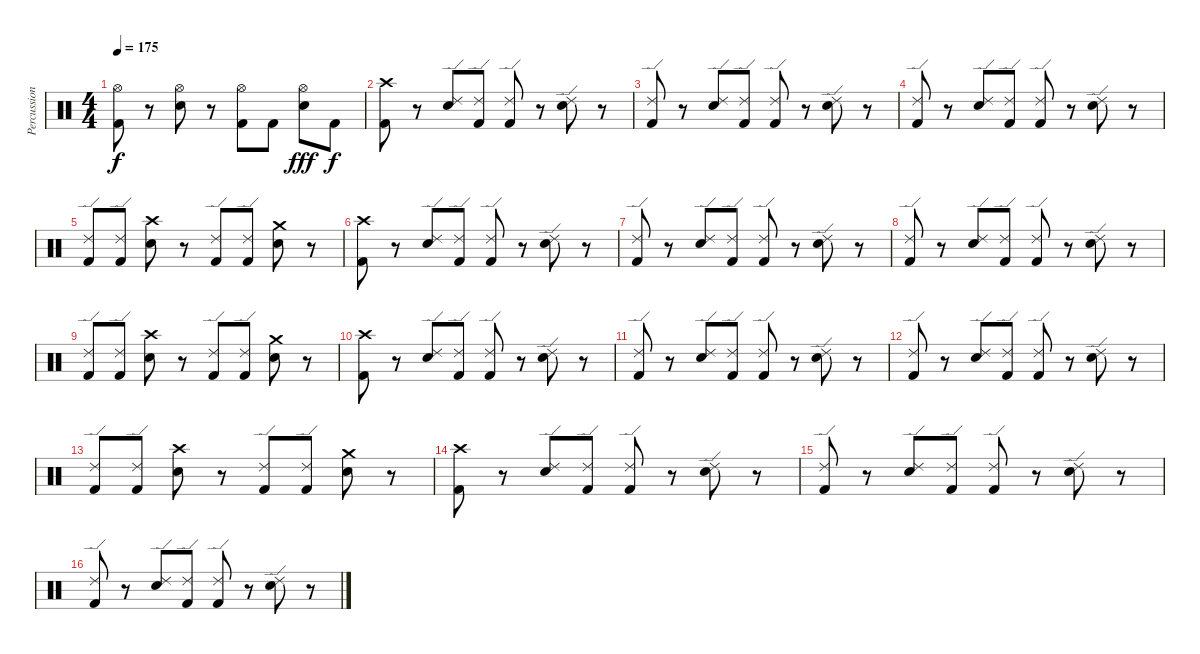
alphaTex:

\track ("Percussion" "Percussion") {instrument percussion}
\staff {score}
\articulation defaults
\ts (4 4)
\tempo 175
\clef neutral
\ks c
("Hi-Hat (open)" "Kick (hit) 2").8{dy f} r.8 ("Hi-Hat (open)" "Electric Snare (hit)").8 r.8 ("Hi-Hat (open)" "Kick (hit) 2").8 "Kick (hit) 2".8 ("Hi-Hat (open)" "Electric Snare (hit)").8{dy fff} "Kick (hit) 2".8{dy f} |
("Crash high (hit)" "Kick (hit) 2").8 r.8 ("Ride (edge) 2" "Electric Snare (hit)").8 ("Ride (edge) 2" "Kick (hit) 2").8 ("Ride (edge) 2" "Kick (hit) 2").8 r.8 ("Ride (edge) 2" "Electric Snare (hit)").8 r.8 |
("Ride (edge) 2" "Kick (hit) 2").8 r.8 ("Ride (edge) 2" "Electric Snare (hit)").8 ("Ride (edge) 2" "Kick (hit) 2").8 ("Ride (edge) 2" "Kick (hit) 2").8 r.8 ("Ride (edge) 2" "Electric Snare (hit)").8 r.8 |
("Ride (edge) 2" "Kick (hit) 2").8 r.8 ("Ride (edge) 2" "Electric Snare (hit)").8 ("Ride (edge) 2" "Kick (hit) 2").8 ("Ride (edge) 2" "Kick (hit) 2").8 r.8 ("Ride (edge) 2" "Electric Snare (hit)").8 r.8 |
("Ride (edge) 2" "Kick (hit) 2").8 ("Ride (edge) 2" "Kick (hit) 2").8 ("Crash high (hit)" "Electric Snare (hit)").8 r.8 ("Ride (edge) 2" "Kick (hit) 2").8 ("Ride (edge) 2" "Kick (hit) 2").8 ("Crash medium (hit)" "Electric Snare (hit)").8 r.8 |
("Crash high (hit)" "Kick (hit) 2").8 r.8 ("Ride (edge) 2" "Electric Snare (hit)").8 ("Ride (edge) 2" "Kick (hit) 2").8 ("Ride (edge) 2" "Kick (hit) 2").8 r.8 ("Ride (edge) 2" "Electric Snare (hit)").8 r.8 |
("Ride (edge) 2" "Kick (hit) 2").8 r.8 ("Ride (edge) 2" "Electric Snare (hit)").8 ("Ride (edge) 2" "Kick (hit) 2").8 ("Ride (edge) 2" "Kick (hit) 2").8 r.8 ("Ride (edge) 2" "Electric Snare (hit)").8 r.8 |
("Ride (edge) 2" "Kick (hit) 2").8 r.8 ("Ride (edge) 2" "Electric Snare (hit)").8 ("Ride (edge) 2" "Kick (hit) 2").8 ("Ride (edge) 2" "Kick (hit) 2").8 r.8 ("Ride (edge) 2" "Electric Snare (hit)").8 r.8 |
("Ride (edge) 2" "Kick (hit) 2").8 ("Ride (edge) 2" "Kick (hit) 2").8 ("Crash high (hit)" "Electric Snare (hit)").8 r.8 ("Ride (edge) 2" "Kick (hit) 2").8 ("Ride (edge) 2" "Kick (hit) 2").8 ("Crash medium (hit)" "Electric Snare (hit)").8 r.8 |
("Crash high (hit)" "Kick (hit) 2").8 r.8 ("Ride (edge) 2" "Electric Snare (hit)").8 ("Ride (edge) 2" "Kick (hit) 2").8 ("Ride (edge) 2" "Kick (hit) 2").8 r.8 ("Ride (edge) 2" "Electric Snare (hit)").8 r.8 |
("Ride (edge) 2" "Kick (hit) 2").8 r.8 ("Ride (edge) 2" "Electric Snare (hit)").8 ("Ride (edge) 2" "Kick (hit) 2").8 ("Ride (edge) 2" "Kick (hit) 2").8 r.8 ("Ride (edge) 2" "Electric Snare (hit)").8 r.8 |
("Ride (edge) 2" "Kick (hit) 2").8 r.8 ("Ride (edge) 2" "Electric Snare (hit)").8 ("Ride (edge) 2" "Kick (hit) 2").8 ("Ride (edge) 2" "Kick (hit) 2").8 r.8 ("Ride (edge) 2" "Electric Snare (hit)").8 r.8 |
("Ride (edge) 2" "Kick (hit) 2").8 ("Ride (edge) 2" "Kick (hit) 2").8 ("Crash high (hit)" "Electric Snare (hit)").8 r.8 ("Ride (edge) 2" "Kick (hit) 2").8 ("Ride (edge) 2" "Kick (hit) 2").8 ("Crash medium (hit)" "Electric Snare (hit)").8 r.8 |
("Crash high (hit)" "Kick (hit) 2").8 r.8 ("Ride (edge) 2" "Electric Snare (hit)").8 ("Ride (edge) 2" "Kick (hit) 2").8 ("Ride (edge) 2" "Kick (hit) 2").8 r.8 ("Ride (edge) 2" "Electric Snare (hit)").8 r.8 |
("Ride (edge) 2" "Kick (hit) 2").8 r.8 ("Ride (edge) 2" "Electric Snare (hit)").8 ("Ride (edge) 2" "Kick (hit) 2").8 ("Ride (edge) 2" "Kick (hit) 2").8 r.8 ("Ride (edge) 2" "Electric Snare (hit)").8 r.8 |
("Ride (edge) 2" "Kick (hit) 2").8 r.8 ("Ride (edge) 2" "Electric Snare (hit)").8 ("Ride (edge) 2" "Kick (hit) 2").8 ("Ride (edge) 2" "Kick (hit) 2").8 r.8 ("Ride (edge) 2" "Electric Snare (hit)").8 r.8
